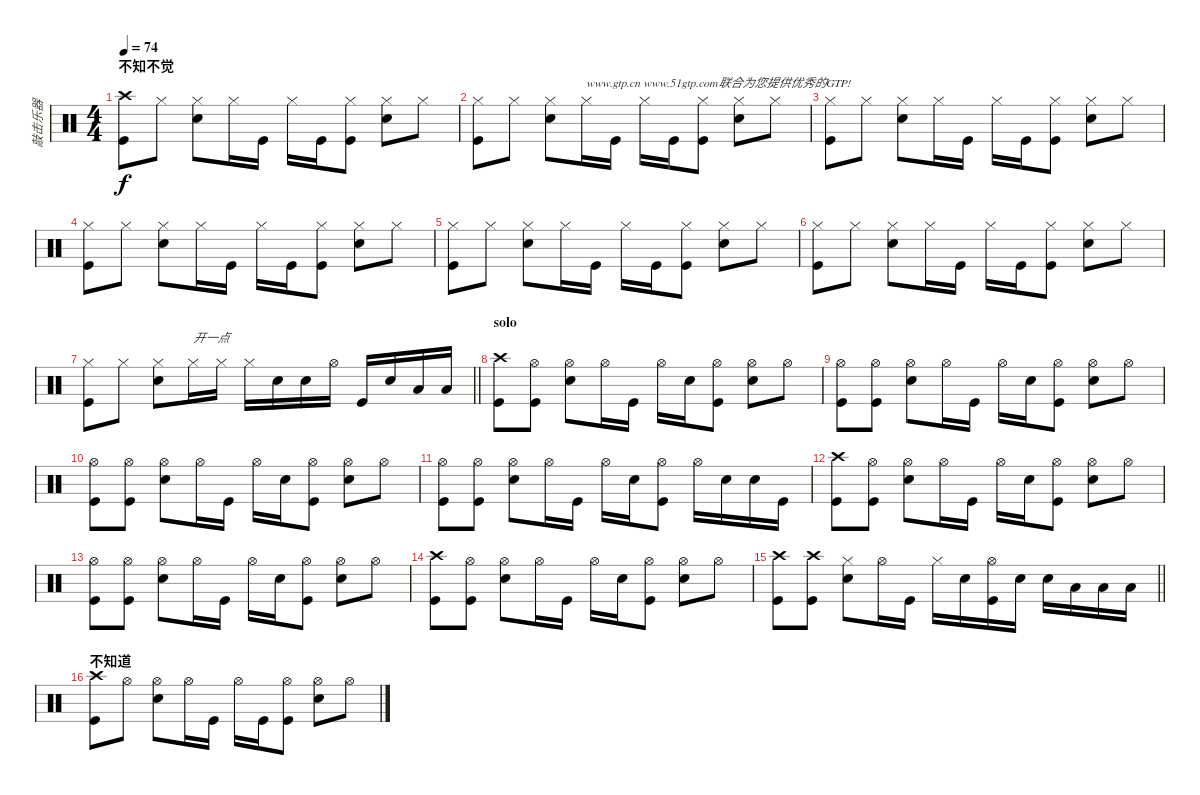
\track ("敲击乐器" "敲击乐器") {instrument percussion}
\staff {score}
\articulation defaults
\ts (4 4)
\section ("" "不知不觉")
\tempo 74
\clef neutral
\ks c
("Crash high (hit)" "Kick (hit)").8{dy f} "Hi-Hat (closed)".8 ("Hi-Hat (closed)" "Snare (hit) 2").8 "Hi-Hat (closed)".16 "Kick (hit)".16 "Hi-Hat (closed)".16 "Kick (hit)".16 ("Hi-Hat (closed)" "Kick (hit)").8 ("Hi-Hat (closed)" "Snare (hit) 2").8 "Hi-Hat (closed)".8 |
("Hi-Hat (closed)" "Kick (hit)").8 "Hi-Hat (closed)".8 ("Hi-Hat (closed)" "Snare (hit) 2").8 "Hi-Hat (closed)".16{txt "www.gtp.cn www.51gtp.com联合为您提供优秀的GTP!"} "Kick (hit)".16 "Hi-Hat (closed)".16 "Kick (hit)".16 ("Hi-Hat (closed)" "Kick (hit)").8 ("Hi-Hat (closed)" "Snare (hit) 2").8 "Hi-Hat (closed)".8 |
("Hi-Hat (closed)" "Kick (hit)").8 "Hi-Hat (closed)".8 ("Hi-Hat (closed)" "Snare (hit) 2").8 "Hi-Hat (closed)".16 "Kick (hit)".16 "Hi-Hat (closed)".16 "Kick (hit)".16 ("Hi-Hat (closed)" "Kick (hit)").8 ("Hi-Hat (closed)" "Snare (hit) 2").8 "Hi-Hat (closed)".8 |
("Hi-Hat (closed)" "Kick (hit)").8 "Hi-Hat (closed)".8 ("Hi-Hat (closed)" "Snare (hit) 2").8 "Hi-Hat (closed)".16 "Kick (hit)".16 "Hi-Hat (closed)".16 "Kick (hit)".16 ("Hi-Hat (closed)" "Kick (hit)").8 ("Hi-Hat (closed)" "Snare (hit) 2").8 "Hi-Hat (closed)".8 |
("Hi-Hat (closed)" "Kick (hit)").8 "Hi-Hat (closed)".8 ("Hi-Hat (closed)" "Snare (hit) 2").8 "Hi-Hat (closed)".16 "Kick (hit)".16 "Hi-Hat (closed)".16 "Kick (hit)".16 ("Hi-Hat (closed)" "Kick (hit)").8 ("Hi-Hat (closed)" "Snare (hit) 2").8 "Hi-Hat (closed)".8 |
("Hi-Hat (closed)" "Kick (hit)").8 "Hi-Hat (closed)".8 ("Hi-Hat (closed)" "Snare (hit) 2").8 "Hi-Hat (closed)".16 "Kick (hit)".16 "Hi-Hat (closed)".16 "Kick (hit)".16 ("Hi-Hat (closed)" "Kick (hit)").8 ("Hi-Hat (closed)" "Snare (hit) 2").8 "Hi-Hat (closed)".8 |
\barLineRight lightlight
("Hi-Hat (closed)" "Kick (hit)").8 "Hi-Hat (closed)".8 ("Hi-Hat (closed)" "Snare (hit) 2").8 "Hi-Hat (closed)".16{txt "开一点"} "Hi-Hat (closed)".16 "Hi-Hat (closed)".16 "Snare (hit) 2".16 "Snare (hit) 2".16 "Hi-Hat (open)".16 "Kick (hit)".16 "Snare (hit) 2".16 "Low Tom (hit)".16 "Low Floor Tom (hit)".16 |
\section ("" "solo")
("Crash high (hit)" "Kick (hit)").8 ("Hi-Hat (open)" "Kick (hit)").8 ("Hi-Hat (open)" "Snare (hit) 2").8 "Hi-Hat (open)".16 "Kick (hit)".16 "Hi-Hat (open)".16 "Snare (hit) 2".16 ("Hi-Hat (open)" "Kick (hit)").8 ("Hi-Hat (open)" "Snare (hit) 2").8 "Hi-Hat (open)".8 |
("Hi-Hat (open)" "Kick (hit)").8 ("Hi-Hat (open)" "Kick (hit)").8 ("Hi-Hat (open)" "Snare (hit) 2").8 "Hi-Hat (open)".16 "Kick (hit)".16 "Hi-Hat (open)".16 "Snare (hit) 2".16 ("Hi-Hat (open)" "Kick (hit)").8 ("Hi-Hat (open)" "Snare (hit) 2").8 "Hi-Hat (open)".8 |
("Hi-Hat (open)" "Kick (hit)").8 ("Hi-Hat (open)" "Kick (hit)").8 ("Hi-Hat (open)" "Snare (hit) 2").8 "Hi-Hat (open)".16 "Kick (hit)".16 "Hi-Hat (open)".16 "Snare (hit) 2".16 ("Hi-Hat (open)" "Kick (hit)").8 ("Hi-Hat (open)" "Snare (hit) 2").8 "Hi-Hat (open)".8 |
("Hi-Hat (open)" "Kick (hit)").8 ("Hi-Hat (open)" "Kick (hit)").8 ("Hi-Hat (open)" "Snare (hit) 2").8 "Hi-Hat (open)".16 "Kick (hit)".16 "Hi-Hat (open)".16 "Snare (hit) 2".16 ("Hi-Hat (open)" "Kick (hit)").8 "Hi-Hat (open)".16 "Snare (hit) 2".16 "Snare (hit) 2".16 "Kick (hit)".16 |
("Crash high (hit)" "Kick (hit)").8 ("Hi-Hat (open)" "Kick (hit)").8 ("Hi-Hat (open)" "Snare (hit) 2").8 "Hi-Hat (open)".16 "Kick (hit)".16 "Hi-Hat (open)".16 "Snare (hit) 2".16 ("Hi-Hat (open)" "Kick (hit)").8 ("Hi-Hat (open)" "Snare (hit) 2").8 "Hi-Hat (open)".8 |
("Hi-Hat (open)" "Kick (hit)").8 ("Hi-Hat (open)" "Kick (hit)").8 ("Hi-Hat (open)" "Snare (hit) 2").8 "Hi-Hat (open)".16 "Kick (hit)".16 "Hi-Hat (open)".16 "Snare (hit) 2".16 ("Hi-Hat (open)" "Kick (hit)").8 ("Hi-Hat (open)" "Snare (hit) 2").8 "Hi-Hat (open)".8 |
("Crash high (hit)" "Kick (hit)").8 ("Hi-Hat (open)" "Kick (hit)").8 ("Hi-Hat (open)" "Snare (hit) 2").8 "Hi-Hat (open)".16 "Kick (hit)".16 "Hi-Hat (open)".16 "Snare (hit) 2".16 ("Hi-Hat (open)" "Kick (hit)").8 ("Hi-Hat (open)" "Snare (hit) 2").8 "Hi-Hat (open)".8 |
\barLineRight lightlight
("Crash high (hit)" "Kick (hit)").8 ("Crash high (hit)" "Kick (hit)").8 ("Hi-Hat (closed)" "Snare (hit) 2").8 "Hi-Hat (open)".16 "Kick (hit)".16 "Hi-Hat (closed)".16 "Snare (hit) 2".16 ("Hi-Hat (open)" "Kick (hit)").16 "Snare (hit) 2".16 "Snare (hit) 2".16 "Low Tom (hit)".16 "Low Tom (hit)".16 "Low Floor Tom (hit)".16 |
\section ("" "不知道")
("Crash high (hit)" "Kick (hit)").8 "Hi-Hat (open)".8 ("Hi-Hat (open)" "Snare (hit) 2").8 "Hi-Hat (open)".16 "Kick (hit)".16 "Hi-Hat (open)".16 "Kick (hit)".16 ("Hi-Hat (open)" "Kick (hit)").8 ("Hi-Hat (open)" "Snare (hit) 2").8 "Hi-Hat (open)".8
